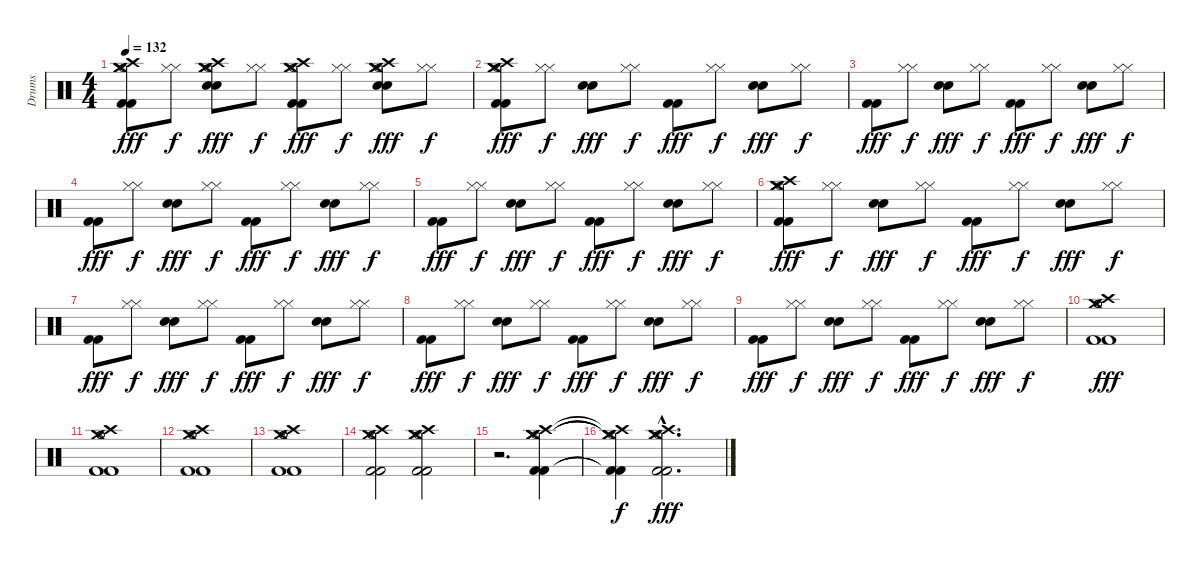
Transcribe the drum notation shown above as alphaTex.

\track ("Drums" "Drums") {instrument percussion}
\staff {score}
\articulation defaults
\ts (4 4)
\tempo 132
\clef neutral
\ks c
("Kick (hit) 2" "Kick (hit) 2" "Crash high (hit)" "Hi-Hat (open)" "Crash medium (hit)" "Crash medium (hit)").8{dy fff} ("Hi-Hat (closed)" "Hi-Hat (closed)").8{dy f} ("Snare (hit) 2" "Snare (hit) 2" "Crash high (hit)" "Hi-Hat (open)" "Crash medium (hit)" "Crash medium (hit)").8{dy fff} ("Hi-Hat (closed)" "Hi-Hat (closed)").8{dy f} ("Kick (hit) 2" "Kick (hit) 2" "Crash high (hit)" "Hi-Hat (open)" "Crash medium (hit)" "Crash medium (hit)").8{dy fff} ("Hi-Hat (closed)" "Hi-Hat (closed)").8{dy f} ("Snare (hit) 2" "Snare (hit) 2" "Crash high (hit)" "Hi-Hat (open)" "Crash medium (hit)" "Crash medium (hit)").8{dy fff} ("Hi-Hat (closed)" "Hi-Hat (closed)").8{dy f} |
("Kick (hit) 2" "Kick (hit) 2" "Crash high (hit)" "Hi-Hat (open)" "Crash medium (hit)" "Crash medium (hit)").8{dy fff} ("Hi-Hat (closed)" "Hi-Hat (closed)").8{dy f} ("Snare (hit) 2" "Snare (hit) 2").8{dy fff} ("Hi-Hat (closed)" "Hi-Hat (closed)").8{dy f} ("Kick (hit) 2" "Kick (hit) 2").8{dy fff} ("Hi-Hat (closed)" "Hi-Hat (closed)").8{dy f} ("Snare (hit) 2" "Snare (hit) 2").8{dy fff} ("Hi-Hat (closed)" "Hi-Hat (closed)").8{dy f} |
("Kick (hit) 2" "Kick (hit) 2").8{dy fff} ("Hi-Hat (closed)" "Hi-Hat (closed)").8{dy f} ("Snare (hit) 2" "Snare (hit) 2").8{dy fff} ("Hi-Hat (closed)" "Hi-Hat (closed)").8{dy f} ("Kick (hit) 2" "Kick (hit) 2").8{dy fff} ("Hi-Hat (closed)" "Hi-Hat (closed)").8{dy f} ("Snare (hit) 2" "Snare (hit) 2").8{dy fff} ("Hi-Hat (closed)" "Hi-Hat (closed)").8{dy f} |
("Kick (hit) 2" "Kick (hit) 2").8{dy fff} ("Hi-Hat (closed)" "Hi-Hat (closed)").8{dy f} ("Snare (hit) 2" "Snare (hit) 2").8{dy fff} ("Hi-Hat (closed)" "Hi-Hat (closed)").8{dy f} ("Kick (hit) 2" "Kick (hit) 2").8{dy fff} ("Hi-Hat (closed)" "Hi-Hat (closed)").8{dy f} ("Snare (hit) 2" "Snare (hit) 2").8{dy fff} ("Hi-Hat (closed)" "Hi-Hat (closed)").8{dy f} |
("Kick (hit) 2" "Kick (hit) 2").8{dy fff} ("Hi-Hat (closed)" "Hi-Hat (closed)").8{dy f} ("Snare (hit) 2" "Snare (hit) 2").8{dy fff} ("Hi-Hat (closed)" "Hi-Hat (closed)").8{dy f} ("Kick (hit) 2" "Kick (hit) 2").8{dy fff} ("Hi-Hat (closed)" "Hi-Hat (closed)").8{dy f} ("Snare (hit) 2" "Snare (hit) 2").8{dy fff} ("Hi-Hat (closed)" "Hi-Hat (closed)").8{dy f} |
("Kick (hit) 2" "Kick (hit) 2" "Crash high (hit)" "Hi-Hat (open)" "Crash medium (hit)" "Crash medium (hit)").8{dy fff} ("Hi-Hat (closed)" "Hi-Hat (closed)").8{dy f} ("Snare (hit) 2" "Snare (hit) 2").8{dy fff} ("Hi-Hat (closed)" "Hi-Hat (closed)").8{dy f} ("Kick (hit) 2" "Kick (hit) 2").8{dy fff} ("Hi-Hat (closed)" "Hi-Hat (closed)").8{dy f} ("Snare (hit) 2" "Snare (hit) 2").8{dy fff} ("Hi-Hat (closed)" "Hi-Hat (closed)").8{dy f} |
("Kick (hit) 2" "Kick (hit) 2").8{dy fff} ("Hi-Hat (closed)" "Hi-Hat (closed)").8{dy f} ("Snare (hit) 2" "Snare (hit) 2").8{dy fff} ("Hi-Hat (closed)" "Hi-Hat (closed)").8{dy f} ("Kick (hit) 2" "Kick (hit) 2").8{dy fff} ("Hi-Hat (closed)" "Hi-Hat (closed)").8{dy f} ("Snare (hit) 2" "Snare (hit) 2").8{dy fff} ("Hi-Hat (closed)" "Hi-Hat (closed)").8{dy f} |
("Kick (hit) 2" "Kick (hit) 2").8{dy fff} ("Hi-Hat (closed)" "Hi-Hat (closed)").8{dy f} ("Snare (hit) 2" "Snare (hit) 2").8{dy fff} ("Hi-Hat (closed)" "Hi-Hat (closed)").8{dy f} ("Kick (hit) 2" "Kick (hit) 2").8{dy fff} ("Hi-Hat (closed)" "Hi-Hat (closed)").8{dy f} ("Snare (hit) 2" "Snare (hit) 2").8{dy fff} ("Hi-Hat (closed)" "Hi-Hat (closed)").8{dy f} |
("Kick (hit) 2" "Kick (hit) 2").8{dy fff} ("Hi-Hat (closed)" "Hi-Hat (closed)").8{dy f} ("Snare (hit) 2" "Snare (hit) 2").8{dy fff} ("Hi-Hat (closed)" "Hi-Hat (closed)").8{dy f} ("Kick (hit) 2" "Kick (hit) 2").8{dy fff} ("Hi-Hat (closed)" "Hi-Hat (closed)").8{dy f} ("Snare (hit) 2" "Snare (hit) 2").8{dy fff} ("Hi-Hat (closed)" "Hi-Hat (closed)").8{dy f} |
("Kick (hit) 2" "Kick (hit) 2" "Crash high (hit)" "Hi-Hat (open)" "Hi-Hat (open)" "Crash medium (hit)").1{dy fff} |
("Kick (hit) 2" "Kick (hit) 2" "Crash high (hit)" "Hi-Hat (open)" "Hi-Hat (open)" "Crash medium (hit)").1 |
("Kick (hit) 2" "Kick (hit) 2" "Crash high (hit)" "Hi-Hat (open)" "Hi-Hat (open)" "Crash medium (hit)").1 |
("Kick (hit) 2" "Kick (hit) 2" "Crash high (hit)" "Hi-Hat (open)" "Hi-Hat (open)" "Crash medium (hit)").1 |
("Kick (hit) 2" "Kick (hit) 2" "Crash high (hit)" "Hi-Hat (open)" "Hi-Hat (open)" "Crash medium (hit)").2 ("Kick (hit) 2" "Kick (hit) 2" "Crash high (hit)" "Hi-Hat (open)" "Crash medium (hit)" "Crash medium (hit)").2 |
r.2{d} ("Kick (hit) 2" "Kick (hit) 2" "Crash high (hit)" "Hi-Hat (open)" "Crash medium (hit)" "Crash medium (hit)").4 |
("Kick (hit) 2"{t} "Kick (hit) 2"{t} "Crash high (hit)"{t} "Hi-Hat (open)"{t} "Crash medium (hit)"{t} "Crash medium (hit)"{t}).4{dy f} ("Kick (hit) 2"{hac} "Kick (hit) 2"{hac} "Crash high (hit)"{hac} "Hi-Hat (open)"{hac} "Crash medium (hit)"{hac} "Crash medium (hit)"{hac}).2{d dy fff}
